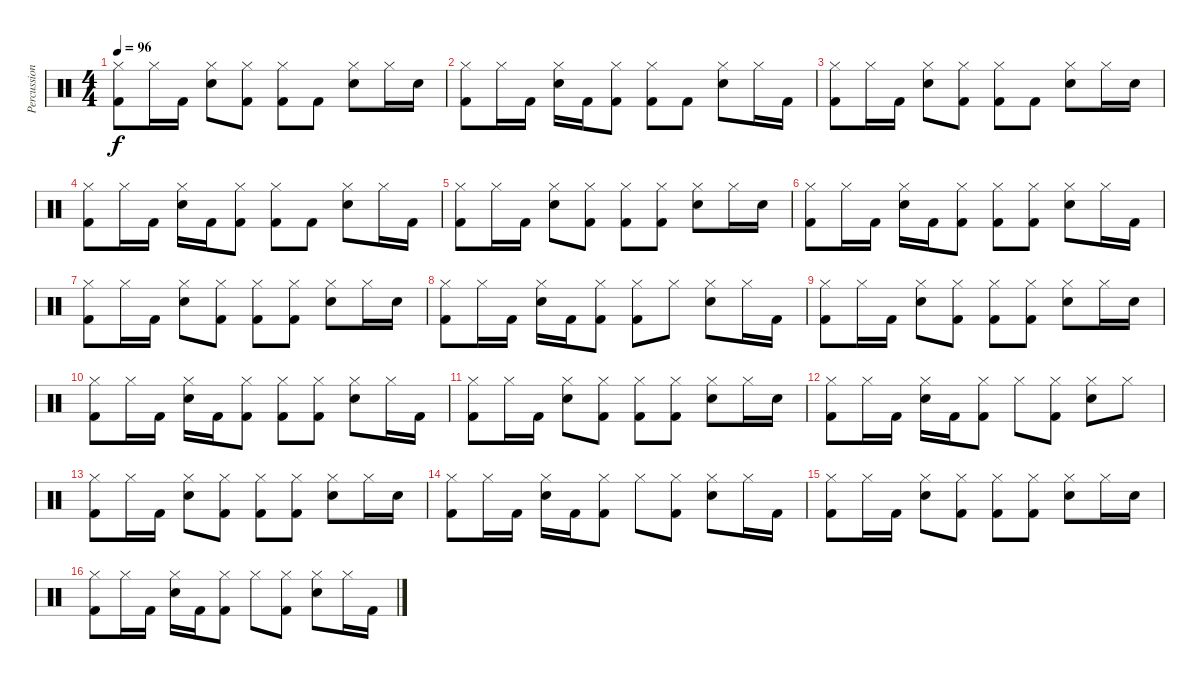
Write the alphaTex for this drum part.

\track ("Percussions" "Percussion") {instrument percussion}
\staff {score}
\articulation defaults
\ts (4 4)
\tempo 96
\clef neutral
\ks c
("Kick (hit) 2" "Hi-Hat (closed)").8{dy f} "Hi-Hat (closed)".16 "Kick (hit) 2".16 ("Hi-Hat (closed)" "Snare (hit) 2").8 ("Kick (hit) 2" "Hi-Hat (closed)").8 ("Kick (hit) 2" "Hi-Hat (closed)").8 "Kick (hit) 2".8 ("Hi-Hat (closed)" "Snare (hit) 2").8 "Hi-Hat (closed)".16 "Snare (hit) 2".16 |
("Hi-Hat (closed)" "Kick (hit) 2").8 "Hi-Hat (closed)".16 "Kick (hit) 2".16 ("Hi-Hat (closed)" "Snare (hit) 2").16 "Kick (hit) 2".16 ("Hi-Hat (closed)" "Kick (hit) 2").8 ("Kick (hit) 2" "Hi-Hat (closed)").8 "Kick (hit) 2".8 ("Hi-Hat (closed)" "Snare (hit) 2").8 "Hi-Hat (closed)".16 "Kick (hit) 2".16 |
("Kick (hit) 2" "Hi-Hat (closed)").8 "Hi-Hat (closed)".16 "Kick (hit) 2".16 ("Hi-Hat (closed)" "Snare (hit) 2").8 ("Kick (hit) 2" "Hi-Hat (closed)").8 ("Kick (hit) 2" "Hi-Hat (closed)").8 "Kick (hit) 2".8 ("Hi-Hat (closed)" "Snare (hit) 2").8 "Hi-Hat (closed)".16 "Snare (hit) 2".16 |
("Hi-Hat (closed)" "Kick (hit) 2").8 "Hi-Hat (closed)".16 "Kick (hit) 2".16 ("Hi-Hat (closed)" "Snare (hit) 2").16 "Kick (hit) 2".16 ("Hi-Hat (closed)" "Kick (hit) 2").8 ("Kick (hit) 2" "Hi-Hat (closed)").8 "Kick (hit) 2".8 ("Hi-Hat (closed)" "Snare (hit) 2").8 "Hi-Hat (closed)".16 "Kick (hit) 2".16 |
("Kick (hit) 2" "Hi-Hat (closed)").8 "Hi-Hat (closed)".16 "Kick (hit) 2".16 ("Hi-Hat (closed)" "Snare (hit) 2").8 ("Kick (hit) 2" "Hi-Hat (closed)").8 ("Kick (hit) 2" "Hi-Hat (closed)").8 ("Hi-Hat (closed)" "Kick (hit) 2").8 ("Hi-Hat (closed)" "Snare (hit) 2").8 "Hi-Hat (closed)".16 "Snare (hit) 2".16 |
("Hi-Hat (closed)" "Kick (hit) 2").8 "Hi-Hat (closed)".16 "Kick (hit) 2".16 ("Hi-Hat (closed)" "Snare (hit) 2").16 "Kick (hit) 2".16 ("Hi-Hat (closed)" "Kick (hit) 2").8 ("Kick (hit) 2" "Hi-Hat (closed)").8 ("Hi-Hat (closed)" "Kick (hit) 2").8 ("Hi-Hat (closed)" "Snare (hit) 2").8 "Hi-Hat (closed)".16 "Kick (hit) 2".16 |
("Kick (hit) 2" "Hi-Hat (closed)").8 "Hi-Hat (closed)".16 "Kick (hit) 2".16 ("Hi-Hat (closed)" "Snare (hit) 2").8 ("Kick (hit) 2" "Hi-Hat (closed)").8 ("Kick (hit) 2" "Hi-Hat (closed)").8 ("Hi-Hat (closed)" "Kick (hit) 2").8 ("Hi-Hat (closed)" "Snare (hit) 2").8 "Hi-Hat (closed)".16 "Snare (hit) 2".16 |
("Hi-Hat (closed)" "Kick (hit) 2").8 "Hi-Hat (closed)".16 "Kick (hit) 2".16 ("Hi-Hat (closed)" "Snare (hit) 2").16 "Kick (hit) 2".16 ("Hi-Hat (closed)" "Kick (hit) 2").8 ("Kick (hit) 2" "Hi-Hat (closed)").8 "Hi-Hat (closed)".8 ("Hi-Hat (closed)" "Snare (hit) 2").8 "Hi-Hat (closed)".16 "Kick (hit) 2".16 |
("Kick (hit) 2" "Hi-Hat (closed)").8 "Hi-Hat (closed)".16 "Kick (hit) 2".16 ("Hi-Hat (closed)" "Snare (hit) 2").8 ("Kick (hit) 2" "Hi-Hat (closed)").8 ("Kick (hit) 2" "Hi-Hat (closed)").8 ("Hi-Hat (closed)" "Kick (hit) 2").8 ("Hi-Hat (closed)" "Snare (hit) 2").8 "Hi-Hat (closed)".16 "Snare (hit) 2".16 |
("Hi-Hat (closed)" "Kick (hit) 2").8 "Hi-Hat (closed)".16 "Kick (hit) 2".16 ("Hi-Hat (closed)" "Snare (hit) 2").16 "Kick (hit) 2".16 ("Hi-Hat (closed)" "Kick (hit) 2").8 ("Kick (hit) 2" "Hi-Hat (closed)").8 ("Hi-Hat (closed)" "Kick (hit) 2").8 ("Hi-Hat (closed)" "Snare (hit) 2").8 "Hi-Hat (closed)".16 "Kick (hit) 2".16 |
("Kick (hit) 2" "Hi-Hat (closed)").8 "Hi-Hat (closed)".16 "Kick (hit) 2".16 ("Hi-Hat (closed)" "Snare (hit) 2").8 ("Kick (hit) 2" "Hi-Hat (closed)").8 ("Kick (hit) 2" "Hi-Hat (closed)").8 ("Hi-Hat (closed)" "Kick (hit) 2").8 ("Hi-Hat (closed)" "Snare (hit) 2").8 "Hi-Hat (closed)".16 "Snare (hit) 2".16 |
("Hi-Hat (closed)" "Kick (hit) 2").8 "Hi-Hat (closed)".16 "Kick (hit) 2".16 ("Hi-Hat (closed)" "Snare (hit) 2").16 "Kick (hit) 2".16 ("Hi-Hat (closed)" "Kick (hit) 2").8 "Hi-Hat (closed)".8 ("Hi-Hat (closed)" "Kick (hit) 2").8 ("Hi-Hat (closed)" "Snare (hit) 2").8 "Hi-Hat (closed)".8 |
("Kick (hit) 2" "Hi-Hat (closed)").8 "Hi-Hat (closed)".16 "Kick (hit) 2".16 ("Hi-Hat (closed)" "Snare (hit) 2").8 ("Kick (hit) 2" "Hi-Hat (closed)").8 ("Kick (hit) 2" "Hi-Hat (closed)").8 ("Hi-Hat (closed)" "Kick (hit) 2").8 ("Hi-Hat (closed)" "Snare (hit) 2").8 "Hi-Hat (closed)".16 "Snare (hit) 2".16 |
("Hi-Hat (closed)" "Kick (hit) 2").8 "Hi-Hat (closed)".16 "Kick (hit) 2".16 ("Hi-Hat (closed)" "Snare (hit) 2").16 "Kick (hit) 2".16 ("Hi-Hat (closed)" "Kick (hit) 2").8 "Hi-Hat (closed)".8 ("Hi-Hat (closed)" "Kick (hit) 2").8 ("Hi-Hat (closed)" "Snare (hit) 2").8 "Hi-Hat (closed)".16 "Kick (hit) 2".16 |
("Kick (hit) 2" "Hi-Hat (closed)").8 "Hi-Hat (closed)".16 "Kick (hit) 2".16 ("Hi-Hat (closed)" "Snare (hit) 2").8 ("Kick (hit) 2" "Hi-Hat (closed)").8 ("Kick (hit) 2" "Hi-Hat (closed)").8 ("Hi-Hat (closed)" "Kick (hit) 2").8 ("Hi-Hat (closed)" "Snare (hit) 2").8 "Hi-Hat (closed)".16 "Snare (hit) 2".16 |
("Hi-Hat (closed)" "Kick (hit) 2").8 "Hi-Hat (closed)".16 "Kick (hit) 2".16 ("Hi-Hat (closed)" "Snare (hit) 2").16 "Kick (hit) 2".16 ("Hi-Hat (closed)" "Kick (hit) 2").8 "Hi-Hat (closed)".8 ("Hi-Hat (closed)" "Kick (hit) 2").8 ("Hi-Hat (closed)" "Snare (hit) 2").8 "Hi-Hat (closed)".16 "Kick (hit) 2".16
